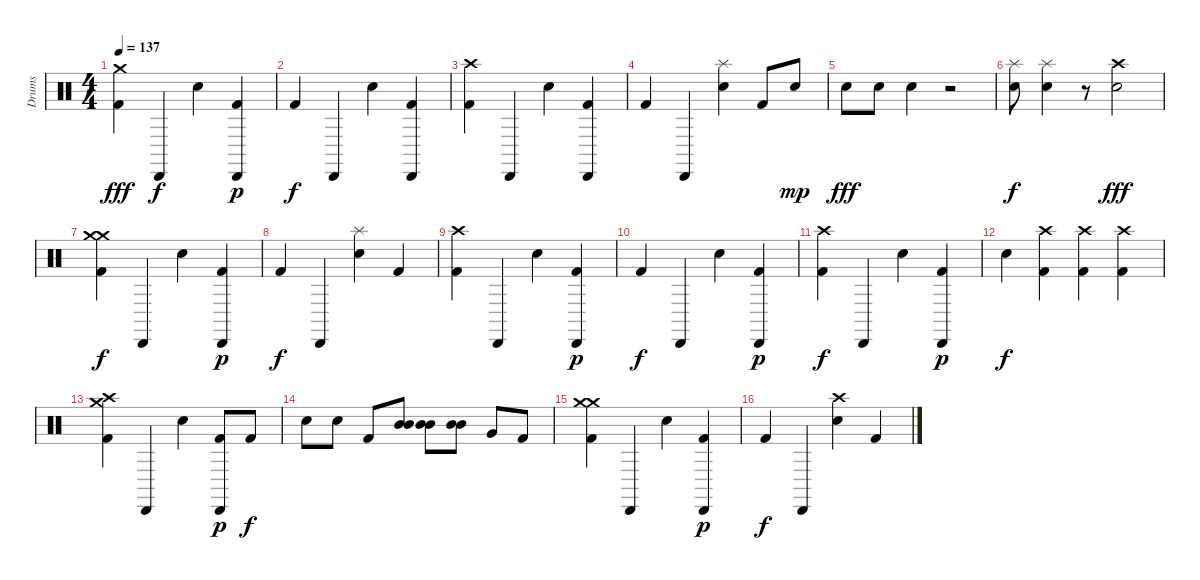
\track ("Drums" "Drums") {instrument percussion}
\staff {score}
\articulation defaults
\ts (4 4)
\tempo 137
\clef neutral
\ks c
("Crash medium (hit)" "Kick (hit) 2").4{dy fff} "Cabasa (hit)".4{dy f} "Electric Snare (hit)".4 ("Cabasa (hit)" "Kick (hit) 2").4{dy p} |
"Kick (hit) 2".4{dy f} "Cabasa (hit)".4 "Electric Snare (hit)".4 ("Cabasa (hit)" "Kick (hit) 2").4 |
("Crash high (hit)" "Kick (hit) 2").4 "Cabasa (hit)".4 "Electric Snare (hit)".4 ("Cabasa (hit)" "Kick (hit) 2").4 |
"Kick (hit) 2".4 "Cabasa (hit)".4 ("Splash (hit)" "Electric Snare (hit)").4 "Kick (hit) 2".8 "Electric Snare (hit)".8{dy mp} |
"Electric Snare (hit)".8{dy fff} "Electric Snare (hit)".8 "Electric Snare (hit)".4 r.2 |
("Splash (hit)" "Electric Snare (hit)").8{dy f} ("Splash (hit)" "Electric Snare (hit)").4 r.8 ("Crash high (hit)" "Electric Snare (hit)").2{dy fff} |
("Crash medium (hit)" "Crash medium (hit)" "Kick (hit) 2").4{dy f} "Cabasa (hit)".4 "Electric Snare (hit)".4 ("Cabasa (hit)" "Kick (hit) 2").4{dy p} |
"Kick (hit) 2".4{dy f} "Cabasa (hit)".4 ("Splash (hit)" "Electric Snare (hit)").4 "Kick (hit) 2".4 |
("Crash high (hit)" "Kick (hit) 2").4 "Cabasa (hit)".4 "Electric Snare (hit)".4 ("Cabasa (hit)" "Kick (hit) 2").4{dy p} |
"Kick (hit) 2".4{dy f} "Cabasa (hit)".4 "Electric Snare (hit)".4 ("Cabasa (hit)" "Kick (hit) 2").4{dy p} |
("Crash high (hit)" "Kick (hit) 2").4{dy f} "Cabasa (hit)".4 "Electric Snare (hit)".4 ("Cabasa (hit)" "Kick (hit) 2").4{dy p} |
"Electric Snare (hit)".4{dy f} ("Crash high (hit)" "Kick (hit) 2").4 ("Crash high (hit)" "Kick (hit) 2").4 ("Crash high (hit)" "Kick (hit) 2").4 |
("Crash high (hit)" "Crash medium (hit)" "Kick (hit) 2").4 "Cabasa (hit)".4 "Electric Snare (hit)".4 ("Cabasa (hit)" "Kick (hit) 2").8{dy p} "Kick (hit) 2".8{dy f} |
"Electric Snare (hit)".8 "Electric Snare (hit)".8 "Kick (hit) 2".8 ("Mid Tom (hit)" "Mid Tom (hit)").8 ("Mid Tom (hit)" "Mid Tom (hit)").8 ("Mid Tom (hit)" "Mid Tom (hit)").8 "Very Low Tom (hit)".8 "Kick (hit) 2".8 |
("Crash medium (hit)" "Crash medium (hit)" "Kick (hit) 2").4 "Cabasa (hit)".4 "Electric Snare (hit)".4 ("Cabasa (hit)" "Kick (hit) 2").4{dy p} |
"Kick (hit) 2".4{dy f} "Cabasa (hit)".4 ("Crash high (hit)" "Electric Snare (hit)").4 "Kick (hit) 2".4
